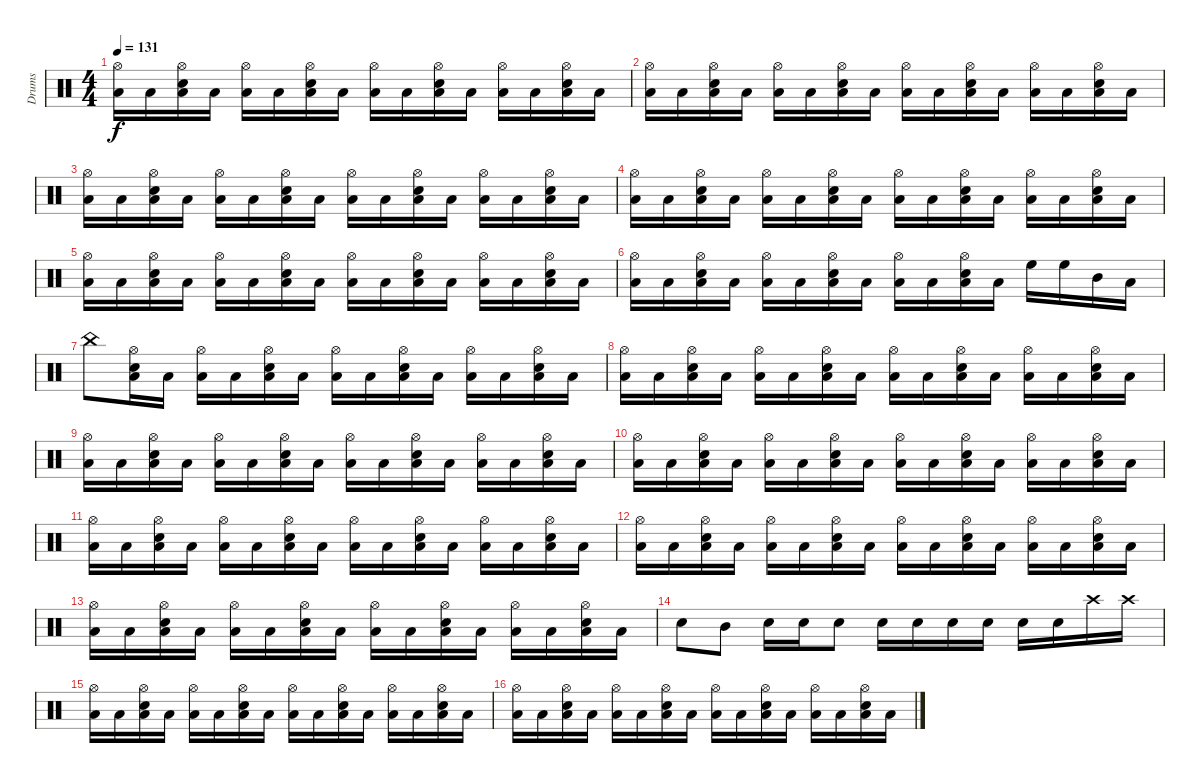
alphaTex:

\track ("Drums" "Drums") {instrument percussion}
\staff {score}
\articulation defaults
\ts (4 4)
\tempo 131
\clef neutral
\ks c
("Low Tom (hit)" "Hi-Hat (open)").16{dy f} "Low Tom (hit)".16 ("Low Tom (hit)" "Electric Snare (hit)" "Hi-Hat (open)").16 "Low Tom (hit)".16 ("Low Tom (hit)" "Hi-Hat (open)").16 "Low Tom (hit)".16 ("Low Tom (hit)" "Electric Snare (hit)" "Hi-Hat (open)").16 "Low Tom (hit)".16 ("Low Tom (hit)" "Hi-Hat (open)").16 "Low Tom (hit)".16 ("Low Tom (hit)" "Electric Snare (hit)" "Hi-Hat (open)").16 "Low Tom (hit)".16 ("Low Tom (hit)" "Hi-Hat (open)").16 "Low Tom (hit)".16 ("Low Tom (hit)" "Electric Snare (hit)" "Hi-Hat (open)").16 "Low Tom (hit)".16 |
("Low Tom (hit)" "Hi-Hat (open)").16 "Low Tom (hit)".16 ("Low Tom (hit)" "Electric Snare (hit)" "Hi-Hat (open)").16 "Low Tom (hit)".16 ("Low Tom (hit)" "Hi-Hat (open)").16 "Low Tom (hit)".16 ("Low Tom (hit)" "Electric Snare (hit)" "Hi-Hat (open)").16 "Low Tom (hit)".16 ("Low Tom (hit)" "Hi-Hat (open)").16 "Low Tom (hit)".16 ("Low Tom (hit)" "Electric Snare (hit)" "Hi-Hat (open)").16 "Low Tom (hit)".16 ("Low Tom (hit)" "Hi-Hat (open)").16 "Low Tom (hit)".16 ("Low Tom (hit)" "Electric Snare (hit)" "Hi-Hat (open)").16 "Low Tom (hit)".16 |
("Low Tom (hit)" "Hi-Hat (open)").16 "Low Tom (hit)".16 ("Low Tom (hit)" "Electric Snare (hit)" "Hi-Hat (open)").16 "Low Tom (hit)".16 ("Low Tom (hit)" "Hi-Hat (open)").16 "Low Tom (hit)".16 ("Low Tom (hit)" "Electric Snare (hit)" "Hi-Hat (open)").16 "Low Tom (hit)".16 ("Low Tom (hit)" "Hi-Hat (open)").16 "Low Tom (hit)".16 ("Low Tom (hit)" "Electric Snare (hit)" "Hi-Hat (open)").16 "Low Tom (hit)".16 ("Low Tom (hit)" "Hi-Hat (open)").16 "Low Tom (hit)".16 ("Low Tom (hit)" "Electric Snare (hit)" "Hi-Hat (open)").16 "Low Tom (hit)".16 |
("Low Tom (hit)" "Hi-Hat (open)").16 "Low Tom (hit)".16 ("Low Tom (hit)" "Electric Snare (hit)" "Hi-Hat (open)").16 "Low Tom (hit)".16 ("Low Tom (hit)" "Hi-Hat (open)").16 "Low Tom (hit)".16 ("Low Tom (hit)" "Electric Snare (hit)" "Hi-Hat (open)").16 "Low Tom (hit)".16 ("Low Tom (hit)" "Hi-Hat (open)").16 "Low Tom (hit)".16 ("Low Tom (hit)" "Electric Snare (hit)" "Hi-Hat (open)").16 "Low Tom (hit)".16 ("Low Tom (hit)" "Hi-Hat (open)").16 "Low Tom (hit)".16 ("Low Tom (hit)" "Electric Snare (hit)" "Hi-Hat (open)").16 "Low Tom (hit)".16 |
("Low Tom (hit)" "Hi-Hat (open)").16 "Low Tom (hit)".16 ("Low Tom (hit)" "Electric Snare (hit)" "Hi-Hat (open)").16 "Low Tom (hit)".16 ("Low Tom (hit)" "Hi-Hat (open)").16 "Low Tom (hit)".16 ("Low Tom (hit)" "Electric Snare (hit)" "Hi-Hat (open)").16 "Low Tom (hit)".16 ("Low Tom (hit)" "Hi-Hat (open)").16 "Low Tom (hit)".16 ("Low Tom (hit)" "Electric Snare (hit)" "Hi-Hat (open)").16 "Low Tom (hit)".16 ("Low Tom (hit)" "Hi-Hat (open)").16 "Low Tom (hit)".16 ("Low Tom (hit)" "Electric Snare (hit)" "Hi-Hat (open)").16 "Low Tom (hit)".16 |
("Low Tom (hit)" "Hi-Hat (open)").16 "Low Tom (hit)".16 ("Low Tom (hit)" "Electric Snare (hit)" "Hi-Hat (open)").16 "Low Tom (hit)".16 ("Low Tom (hit)" "Hi-Hat (open)").16 "Low Tom (hit)".16 ("Low Tom (hit)" "Electric Snare (hit)" "Hi-Hat (open)").16 "Low Tom (hit)".16 ("Low Tom (hit)" "Hi-Hat (open)").16 "Low Tom (hit)".16 ("Low Tom (hit)" "Electric Snare (hit)" "Hi-Hat (open)").16 "Low Tom (hit)".16 "High Floor Tom (hit)".16 "High Floor Tom (hit)".16 "Mid Tom (hit)".16 "Low Tom (hit)".16 |
"China (hit)".8 ("Hi-Hat (open)" "Electric Snare (hit)" "Low Tom (hit)").16 "Low Tom (hit)".16 ("Hi-Hat (open)" "Low Tom (hit)").16 "Low Tom (hit)".16 ("Hi-Hat (open)" "Electric Snare (hit)" "Low Tom (hit)").16 "Low Tom (hit)".16 ("Hi-Hat (open)" "Low Tom (hit)").16 "Low Tom (hit)".16 ("Hi-Hat (open)" "Electric Snare (hit)" "Low Tom (hit)").16 "Low Tom (hit)".16 ("Hi-Hat (open)" "Low Tom (hit)").16 "Low Tom (hit)".16 ("Hi-Hat (open)" "Electric Snare (hit)" "Low Tom (hit)").16 "Low Tom (hit)".16 |
("Hi-Hat (open)" "Low Tom (hit)").16 "Low Tom (hit)".16 ("Hi-Hat (open)" "Electric Snare (hit)" "Low Tom (hit)").16 "Low Tom (hit)".16 ("Hi-Hat (open)" "Low Tom (hit)").16 "Low Tom (hit)".16 ("Hi-Hat (open)" "Electric Snare (hit)" "Low Tom (hit)").16 "Low Tom (hit)".16 ("Hi-Hat (open)" "Low Tom (hit)").16 "Low Tom (hit)".16 ("Hi-Hat (open)" "Electric Snare (hit)" "Low Tom (hit)").16 "Low Tom (hit)".16 ("Hi-Hat (open)" "Low Tom (hit)").16 "Low Tom (hit)".16 ("Hi-Hat (open)" "Electric Snare (hit)" "Low Tom (hit)").16 "Low Tom (hit)".16 |
("Hi-Hat (open)" "Low Tom (hit)").16 "Low Tom (hit)".16 ("Hi-Hat (open)" "Electric Snare (hit)" "Low Tom (hit)").16 "Low Tom (hit)".16 ("Hi-Hat (open)" "Low Tom (hit)").16 "Low Tom (hit)".16 ("Hi-Hat (open)" "Electric Snare (hit)" "Low Tom (hit)").16 "Low Tom (hit)".16 ("Hi-Hat (open)" "Low Tom (hit)").16 "Low Tom (hit)".16 ("Hi-Hat (open)" "Electric Snare (hit)" "Low Tom (hit)").16 "Low Tom (hit)".16 ("Hi-Hat (open)" "Low Tom (hit)").16 "Low Tom (hit)".16 ("Hi-Hat (open)" "Electric Snare (hit)" "Low Tom (hit)").16 "Low Tom (hit)".16 |
("Hi-Hat (open)" "Low Tom (hit)").16 "Low Tom (hit)".16 ("Hi-Hat (open)" "Electric Snare (hit)" "Low Tom (hit)").16 "Low Tom (hit)".16 ("Hi-Hat (open)" "Low Tom (hit)").16 "Low Tom (hit)".16 ("Hi-Hat (open)" "Electric Snare (hit)" "Low Tom (hit)").16 "Low Tom (hit)".16 ("Hi-Hat (open)" "Low Tom (hit)").16 "Low Tom (hit)".16 ("Hi-Hat (open)" "Electric Snare (hit)" "Low Tom (hit)").16 "Low Tom (hit)".16 ("Hi-Hat (open)" "Low Tom (hit)").16 "Low Tom (hit)".16 ("Hi-Hat (open)" "Electric Snare (hit)" "Low Tom (hit)").16 "Low Tom (hit)".16 |
("Hi-Hat (open)" "Low Tom (hit)").16 "Low Tom (hit)".16 ("Hi-Hat (open)" "Electric Snare (hit)" "Low Tom (hit)").16 "Low Tom (hit)".16 ("Hi-Hat (open)" "Low Tom (hit)").16 "Low Tom (hit)".16 ("Hi-Hat (open)" "Electric Snare (hit)" "Low Tom (hit)").16 "Low Tom (hit)".16 ("Hi-Hat (open)" "Low Tom (hit)").16 "Low Tom (hit)".16 ("Hi-Hat (open)" "Electric Snare (hit)" "Low Tom (hit)").16 "Low Tom (hit)".16 ("Hi-Hat (open)" "Low Tom (hit)").16 "Low Tom (hit)".16 ("Hi-Hat (open)" "Electric Snare (hit)" "Low Tom (hit)").16 "Low Tom (hit)".16 |
("Hi-Hat (open)" "Low Tom (hit)").16 "Low Tom (hit)".16 ("Hi-Hat (open)" "Electric Snare (hit)" "Low Tom (hit)").16 "Low Tom (hit)".16 ("Hi-Hat (open)" "Low Tom (hit)").16 "Low Tom (hit)".16 ("Hi-Hat (open)" "Electric Snare (hit)" "Low Tom (hit)").16 "Low Tom (hit)".16 ("Hi-Hat (open)" "Low Tom (hit)").16 "Low Tom (hit)".16 ("Hi-Hat (open)" "Electric Snare (hit)" "Low Tom (hit)").16 "Low Tom (hit)".16 ("Hi-Hat (open)" "Low Tom (hit)").16 "Low Tom (hit)".16 ("Hi-Hat (open)" "Electric Snare (hit)" "Low Tom (hit)").16 "Low Tom (hit)".16 |
("Hi-Hat (open)" "Low Tom (hit)").16 "Low Tom (hit)".16 ("Hi-Hat (open)" "Electric Snare (hit)" "Low Tom (hit)").16 "Low Tom (hit)".16 ("Hi-Hat (open)" "Low Tom (hit)").16 "Low Tom (hit)".16 ("Hi-Hat (open)" "Electric Snare (hit)" "Low Tom (hit)").16 "Low Tom (hit)".16 ("Hi-Hat (open)" "Low Tom (hit)").16 "Low Tom (hit)".16 ("Hi-Hat (open)" "Electric Snare (hit)" "Low Tom (hit)").16 "Low Tom (hit)".16 ("Hi-Hat (open)" "Low Tom (hit)").16 "Low Tom (hit)".16 ("Hi-Hat (open)" "Electric Snare (hit)" "Low Tom (hit)").16 "Low Tom (hit)".16 |
"Electric Snare (hit)".8 "Mid Tom (hit)".8 "Electric Snare (hit)".16 "Electric Snare (hit)".16 "Electric Snare (hit)".8 "Electric Snare (hit)".16 "Electric Snare (hit)".16 "Electric Snare (hit)".16 "Electric Snare (hit)".16 "Electric Snare (hit)".16 "Electric Snare (hit)".16 "Crash high (hit)".16 "Crash high (hit)".16 |
("Low Tom (hit)" "Hi-Hat (open)").16 "Low Tom (hit)".16 ("Low Tom (hit)" "Electric Snare (hit)" "Hi-Hat (open)").16 "Low Tom (hit)".16 ("Low Tom (hit)" "Hi-Hat (open)").16 "Low Tom (hit)".16 ("Low Tom (hit)" "Electric Snare (hit)" "Hi-Hat (open)").16 "Low Tom (hit)".16 ("Low Tom (hit)" "Hi-Hat (open)").16 "Low Tom (hit)".16 ("Low Tom (hit)" "Electric Snare (hit)" "Hi-Hat (open)").16 "Low Tom (hit)".16 ("Low Tom (hit)" "Hi-Hat (open)").16 "Low Tom (hit)".16 ("Low Tom (hit)" "Electric Snare (hit)" "Hi-Hat (open)").16 "Low Tom (hit)".16 |
("Low Tom (hit)" "Hi-Hat (open)").16 "Low Tom (hit)".16 ("Low Tom (hit)" "Electric Snare (hit)" "Hi-Hat (open)").16 "Low Tom (hit)".16 ("Low Tom (hit)" "Hi-Hat (open)").16 "Low Tom (hit)".16 ("Low Tom (hit)" "Electric Snare (hit)" "Hi-Hat (open)").16 "Low Tom (hit)".16 ("Low Tom (hit)" "Hi-Hat (open)").16 "Low Tom (hit)".16 ("Low Tom (hit)" "Electric Snare (hit)" "Hi-Hat (open)").16 "Low Tom (hit)".16 ("Low Tom (hit)" "Hi-Hat (open)").16 "Low Tom (hit)".16 ("Low Tom (hit)" "Electric Snare (hit)" "Hi-Hat (open)").16 "Low Tom (hit)".16
